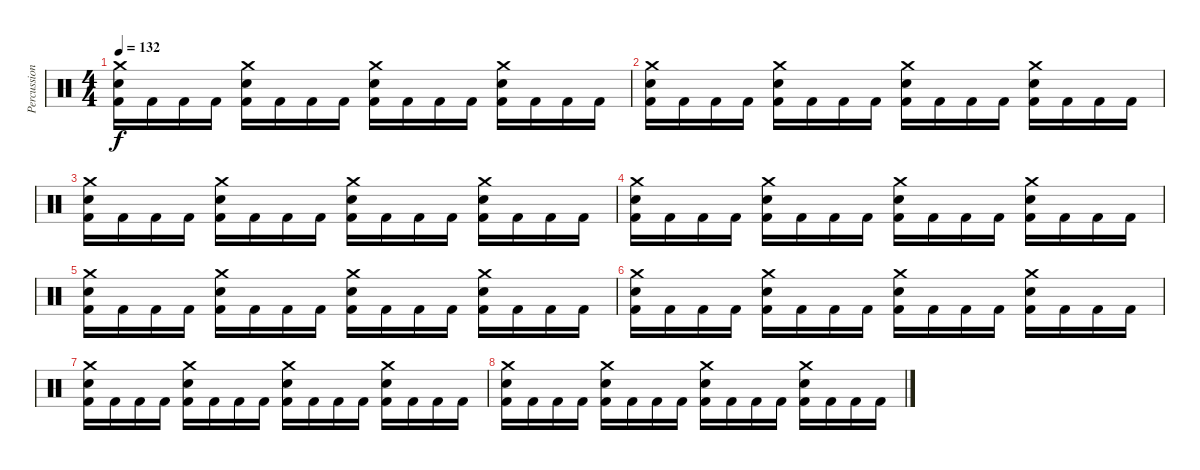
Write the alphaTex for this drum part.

\track ("Percussion" "Percussion") {instrument percussion}
\staff {score}
\articulation defaults
\ts (4 4)
\tempo 132
\clef neutral
\ks c
("Snare (hit) 2" "Kick (hit) 2" "Crash medium (hit)").16{dy f} "Kick (hit) 2".16 "Kick (hit) 2".16 "Kick (hit) 2".16 ("Snare (hit) 2" "Kick (hit) 2" "Crash medium (hit)").16 "Kick (hit) 2".16 "Kick (hit) 2".16 "Kick (hit) 2".16 ("Snare (hit) 2" "Kick (hit) 2" "Crash medium (hit)").16 "Kick (hit) 2".16 "Kick (hit) 2".16 "Kick (hit) 2".16 ("Snare (hit) 2" "Kick (hit) 2" "Crash medium (hit)").16 "Kick (hit) 2".16 "Kick (hit) 2".16 "Kick (hit) 2".16 |
("Snare (hit) 2" "Kick (hit) 2" "Crash medium (hit)").16 "Kick (hit) 2".16 "Kick (hit) 2".16 "Kick (hit) 2".16 ("Snare (hit) 2" "Kick (hit) 2" "Crash medium (hit)").16 "Kick (hit) 2".16 "Kick (hit) 2".16 "Kick (hit) 2".16 ("Snare (hit) 2" "Kick (hit) 2" "Crash medium (hit)").16 "Kick (hit) 2".16 "Kick (hit) 2".16 "Kick (hit) 2".16 ("Snare (hit) 2" "Kick (hit) 2" "Crash medium (hit)").16 "Kick (hit) 2".16 "Kick (hit) 2".16 "Kick (hit) 2".16 |
("Snare (hit) 2" "Kick (hit) 2" "Crash medium (hit)").16 "Kick (hit) 2".16 "Kick (hit) 2".16 "Kick (hit) 2".16 ("Snare (hit) 2" "Kick (hit) 2" "Crash medium (hit)").16 "Kick (hit) 2".16 "Kick (hit) 2".16 "Kick (hit) 2".16 ("Snare (hit) 2" "Kick (hit) 2" "Crash medium (hit)").16 "Kick (hit) 2".16 "Kick (hit) 2".16 "Kick (hit) 2".16 ("Snare (hit) 2" "Kick (hit) 2" "Crash medium (hit)").16 "Kick (hit) 2".16 "Kick (hit) 2".16 "Kick (hit) 2".16 |
("Snare (hit) 2" "Kick (hit) 2" "Crash medium (hit)").16 "Kick (hit) 2".16 "Kick (hit) 2".16 "Kick (hit) 2".16 ("Snare (hit) 2" "Kick (hit) 2" "Crash medium (hit)").16 "Kick (hit) 2".16 "Kick (hit) 2".16 "Kick (hit) 2".16 ("Snare (hit) 2" "Kick (hit) 2" "Crash medium (hit)").16 "Kick (hit) 2".16 "Kick (hit) 2".16 "Kick (hit) 2".16 ("Snare (hit) 2" "Kick (hit) 2" "Crash medium (hit)").16 "Kick (hit) 2".16 "Kick (hit) 2".16 "Kick (hit) 2".16 |
("Snare (hit) 2" "Kick (hit) 2" "Crash medium (hit)").16 "Kick (hit) 2".16 "Kick (hit) 2".16 "Kick (hit) 2".16 ("Snare (hit) 2" "Kick (hit) 2" "Crash medium (hit)").16 "Kick (hit) 2".16 "Kick (hit) 2".16 "Kick (hit) 2".16 ("Snare (hit) 2" "Kick (hit) 2" "Crash medium (hit)").16 "Kick (hit) 2".16 "Kick (hit) 2".16 "Kick (hit) 2".16 ("Snare (hit) 2" "Kick (hit) 2" "Crash medium (hit)").16 "Kick (hit) 2".16 "Kick (hit) 2".16 "Kick (hit) 2".16 |
("Snare (hit) 2" "Kick (hit) 2" "Crash medium (hit)").16 "Kick (hit) 2".16 "Kick (hit) 2".16 "Kick (hit) 2".16 ("Snare (hit) 2" "Kick (hit) 2" "Crash medium (hit)").16 "Kick (hit) 2".16 "Kick (hit) 2".16 "Kick (hit) 2".16 ("Snare (hit) 2" "Kick (hit) 2" "Crash medium (hit)").16 "Kick (hit) 2".16 "Kick (hit) 2".16 "Kick (hit) 2".16 ("Snare (hit) 2" "Kick (hit) 2" "Crash medium (hit)").16 "Kick (hit) 2".16 "Kick (hit) 2".16 "Kick (hit) 2".16 |
("Snare (hit) 2" "Kick (hit) 2" "Crash medium (hit)").16 "Kick (hit) 2".16 "Kick (hit) 2".16 "Kick (hit) 2".16 ("Snare (hit) 2" "Kick (hit) 2" "Crash medium (hit)").16 "Kick (hit) 2".16 "Kick (hit) 2".16 "Kick (hit) 2".16 ("Snare (hit) 2" "Kick (hit) 2" "Crash medium (hit)").16 "Kick (hit) 2".16 "Kick (hit) 2".16 "Kick (hit) 2".16 ("Snare (hit) 2" "Kick (hit) 2" "Crash medium (hit)").16 "Kick (hit) 2".16 "Kick (hit) 2".16 "Kick (hit) 2".16 |
("Snare (hit) 2" "Kick (hit) 2" "Crash medium (hit)").16 "Kick (hit) 2".16 "Kick (hit) 2".16 "Kick (hit) 2".16 ("Snare (hit) 2" "Kick (hit) 2" "Crash medium (hit)").16 "Kick (hit) 2".16 "Kick (hit) 2".16 "Kick (hit) 2".16 ("Snare (hit) 2" "Kick (hit) 2" "Crash medium (hit)").16 "Kick (hit) 2".16 "Kick (hit) 2".16 "Kick (hit) 2".16 ("Snare (hit) 2" "Kick (hit) 2" "Crash medium (hit)").16 "Kick (hit) 2".16 "Kick (hit) 2".16 "Kick (hit) 2".16
